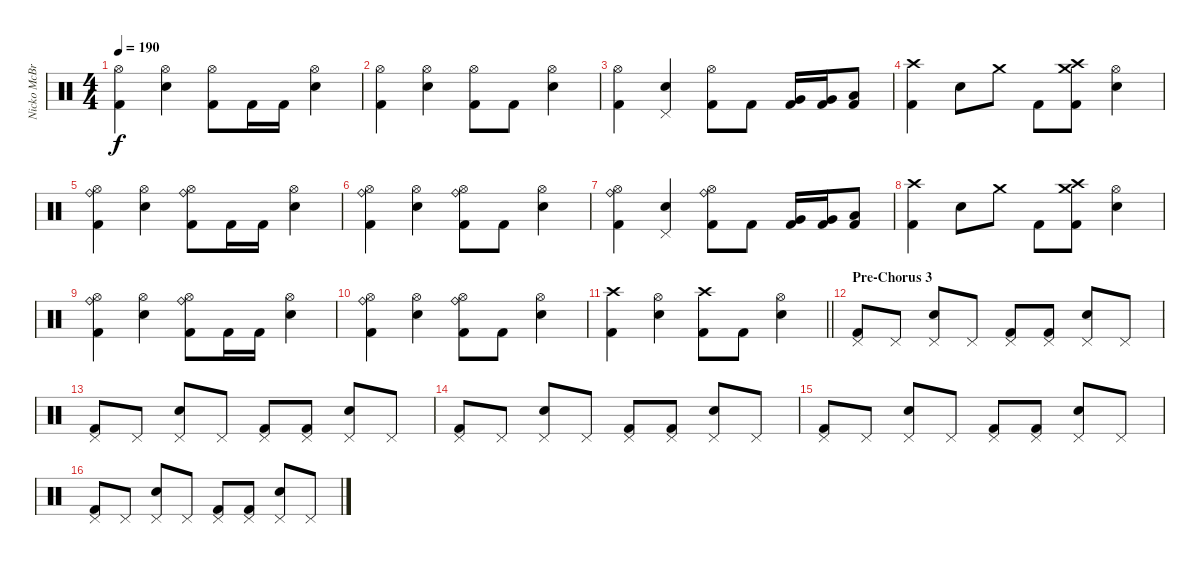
\track ("Nicko McBrain" "Nicko McBr") {instrument percussion}
\staff {score}
\articulation defaults
\ts (4 4)
\tempo 190
\clef neutral
\ks c
("Hi-Hat (open)" "Kick (hit) 2").4{dy f} ("Hi-Hat (open)" "Electric Snare (hit)").4 ("Hi-Hat (open)" "Kick (hit) 2").8 "Kick (hit) 2".16 "Kick (hit) 2".16 ("Hi-Hat (open)" "Electric Snare (hit)").4 |
("Hi-Hat (open)" "Kick (hit) 2").4 ("Hi-Hat (open)" "Electric Snare (hit)").4 ("Hi-Hat (open)" "Kick (hit) 2").8 "Kick (hit) 2".8 ("Hi-Hat (open)" "Electric Snare (hit)").4 |
("Hi-Hat (open)" "Kick (hit) 2").4 ("Pedal Hi-Hat (hit)" "Electric Snare (hit)").4 ("Hi-Hat (open)" "Kick (hit) 2").8 "Kick (hit) 2".8 ("Very Low Tom (hit)" "Kick (hit) 2").16 ("Very Low Tom (hit)" "Kick (hit) 2").16 ("Low Floor Tom (hit)" "Kick (hit) 2").8 |
("Crash high (hit)" "Kick (hit) 2").4 "Electric Snare (hit)".8 "Crash medium (hit)".8 "Kick (hit) 2".8 ("Crash medium (hit)" "Crash high (hit)" "Kick (hit) 2").8 ("Hi-Hat (open)" "Electric Snare (hit)").4 |
("Hi-Hat (open)" "Ride (bell)" "Kick (hit) 2").4 ("Hi-Hat (open)" "Electric Snare (hit)").4 ("Hi-Hat (open)" "Ride (bell)" "Kick (hit) 2").8 "Kick (hit) 2".16 "Kick (hit) 2".16 ("Hi-Hat (open)" "Electric Snare (hit)").4 |
("Hi-Hat (open)" "Ride (bell)" "Kick (hit) 2").4 ("Hi-Hat (open)" "Electric Snare (hit)").4 ("Hi-Hat (open)" "Ride (bell)" "Kick (hit) 2").8 "Kick (hit) 2".8 ("Hi-Hat (open)" "Electric Snare (hit)").4 |
("Hi-Hat (open)" "Ride (bell)" "Kick (hit) 2").4 ("Pedal Hi-Hat (hit)" "Electric Snare (hit)").4 ("Hi-Hat (open)" "Ride (bell)" "Kick (hit) 2").8 "Kick (hit) 2".8 ("Very Low Tom (hit)" "Kick (hit) 2").16 ("Very Low Tom (hit)" "Kick (hit) 2").16 ("Low Floor Tom (hit)" "Kick (hit) 2").8 |
("Crash high (hit)" "Kick (hit) 2").4 "Electric Snare (hit)".8 "Crash medium (hit)".8 "Kick (hit) 2".8 ("Crash medium (hit)" "Crash high (hit)" "Kick (hit) 2").8 ("Hi-Hat (open)" "Electric Snare (hit)").4 |
("Hi-Hat (open)" "Ride (bell)" "Kick (hit) 2").4 ("Hi-Hat (open)" "Electric Snare (hit)").4 ("Hi-Hat (open)" "Ride (bell)" "Kick (hit) 2").8 "Kick (hit) 2".16 "Kick (hit) 2".16 ("Hi-Hat (open)" "Electric Snare (hit)").4 |
("Hi-Hat (open)" "Ride (bell)" "Kick (hit) 2").4 ("Hi-Hat (open)" "Electric Snare (hit)").4 ("Hi-Hat (open)" "Ride (bell)" "Kick (hit) 2").8 "Kick (hit) 2".8 ("Hi-Hat (open)" "Electric Snare (hit)").4 |
\barLineRight lightlight
("Crash high (hit)" "Kick (hit) 2").4 ("Hi-Hat (open)" "Electric Snare (hit)").4 ("Crash high (hit)" "Kick (hit) 2").8 "Kick (hit) 2".8 ("Hi-Hat (open)" "Electric Snare (hit)").4 |
\section ("" "Pre-Chorus 3")
("Pedal Hi-Hat (hit)" "Kick (hit) 2").8 "Pedal Hi-Hat (hit)".8 ("Pedal Hi-Hat (hit)" "Electric Snare (hit)").8 "Pedal Hi-Hat (hit)".8 ("Pedal Hi-Hat (hit)" "Kick (hit) 2").8 ("Pedal Hi-Hat (hit)" "Kick (hit) 2").8 ("Pedal Hi-Hat (hit)" "Electric Snare (hit)").8 "Pedal Hi-Hat (hit)".8 |
("Pedal Hi-Hat (hit)" "Kick (hit) 2").8 "Pedal Hi-Hat (hit)".8 ("Pedal Hi-Hat (hit)" "Electric Snare (hit)").8 "Pedal Hi-Hat (hit)".8 ("Pedal Hi-Hat (hit)" "Kick (hit) 2").8 ("Pedal Hi-Hat (hit)" "Kick (hit) 2").8 ("Pedal Hi-Hat (hit)" "Electric Snare (hit)").8 "Pedal Hi-Hat (hit)".8 |
("Pedal Hi-Hat (hit)" "Kick (hit) 2").8 "Pedal Hi-Hat (hit)".8 ("Pedal Hi-Hat (hit)" "Electric Snare (hit)").8 "Pedal Hi-Hat (hit)".8 ("Pedal Hi-Hat (hit)" "Kick (hit) 2").8 ("Pedal Hi-Hat (hit)" "Kick (hit) 2").8 ("Pedal Hi-Hat (hit)" "Electric Snare (hit)").8 "Pedal Hi-Hat (hit)".8 |
("Pedal Hi-Hat (hit)" "Kick (hit) 2").8 "Pedal Hi-Hat (hit)".8 ("Pedal Hi-Hat (hit)" "Electric Snare (hit)").8 "Pedal Hi-Hat (hit)".8 ("Pedal Hi-Hat (hit)" "Kick (hit) 2").8 ("Pedal Hi-Hat (hit)" "Kick (hit) 2").8 ("Pedal Hi-Hat (hit)" "Electric Snare (hit)").8 "Pedal Hi-Hat (hit)".8 |
("Pedal Hi-Hat (hit)" "Kick (hit) 2").8 "Pedal Hi-Hat (hit)".8 ("Pedal Hi-Hat (hit)" "Electric Snare (hit)").8 "Pedal Hi-Hat (hit)".8 ("Pedal Hi-Hat (hit)" "Kick (hit) 2").8 ("Pedal Hi-Hat (hit)" "Kick (hit) 2").8 ("Pedal Hi-Hat (hit)" "Electric Snare (hit)").8 "Pedal Hi-Hat (hit)".8
